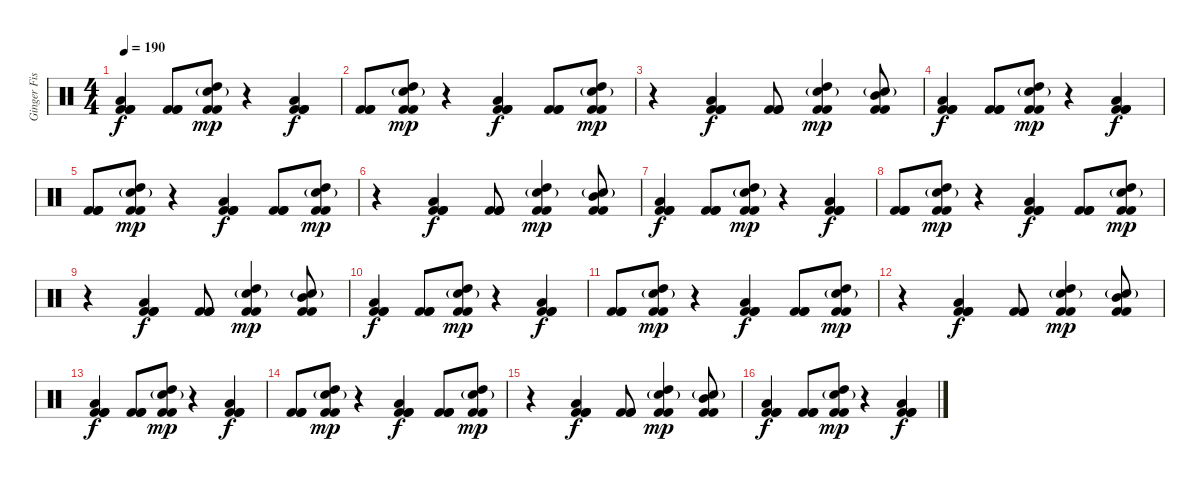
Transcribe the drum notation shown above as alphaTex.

\track ("Ginger Fish" "Ginger Fis") {instrument percussion}
\staff {score}
\articulation defaults
\ts (4 4)
\tempo 190
\clef neutral
\ks c
("Low Tom (hit)" "Kick (hit) 2" "Kick (hit) 2" "Kick (hit) 2").4{dy f} ("Kick (hit) 2" "Kick (hit) 2" "Kick (hit) 2").8 ("High Tom (hit)" "Electric Snare (hit)"{g} "Kick (hit) 2" "Kick (hit) 2").8{dy mp} r.4 ("Low Tom (hit)" "Kick (hit) 2" "Kick (hit) 2" "Kick (hit) 2").4{dy f} |
("Kick (hit) 2" "Kick (hit) 2" "Kick (hit) 2").8 ("High Tom (hit)" "Electric Snare (hit)"{g} "Kick (hit) 2" "Kick (hit) 2").8{dy mp} r.4 ("Low Tom (hit)" "Kick (hit) 2" "Kick (hit) 2" "Kick (hit) 2").4{dy f} ("Kick (hit) 2" "Kick (hit) 2" "Kick (hit) 2").8 ("High Tom (hit)" "Electric Snare (hit)"{g} "Kick (hit) 2" "Kick (hit) 2").8{dy mp} |
r.4 ("Low Tom (hit)" "Kick (hit) 2" "Kick (hit) 2" "Kick (hit) 2").4{dy f} ("Kick (hit) 2" "Kick (hit) 2" "Kick (hit) 2").8 ("High Tom (hit)" "Electric Snare (hit)"{g} "Kick (hit) 2" "Kick (hit) 2").4{dy mp} ("Mid Tom (hit)" "Electric Snare (hit)"{g} "Kick (hit) 2" "Kick (hit) 2").8 |
("Low Tom (hit)" "Kick (hit) 2" "Kick (hit) 2" "Kick (hit) 2").4{dy f} ("Kick (hit) 2" "Kick (hit) 2" "Kick (hit) 2").8 ("High Tom (hit)" "Electric Snare (hit)"{g} "Kick (hit) 2" "Kick (hit) 2").8{dy mp} r.4 ("Low Tom (hit)" "Kick (hit) 2" "Kick (hit) 2" "Kick (hit) 2").4{dy f} |
("Kick (hit) 2" "Kick (hit) 2" "Kick (hit) 2").8 ("High Tom (hit)" "Electric Snare (hit)"{g} "Kick (hit) 2" "Kick (hit) 2").8{dy mp} r.4 ("Low Tom (hit)" "Kick (hit) 2" "Kick (hit) 2" "Kick (hit) 2").4{dy f} ("Kick (hit) 2" "Kick (hit) 2" "Kick (hit) 2").8 ("High Tom (hit)" "Electric Snare (hit)"{g} "Kick (hit) 2" "Kick (hit) 2").8{dy mp} |
r.4 ("Low Tom (hit)" "Kick (hit) 2" "Kick (hit) 2" "Kick (hit) 2").4{dy f} ("Kick (hit) 2" "Kick (hit) 2" "Kick (hit) 2").8 ("High Tom (hit)" "Electric Snare (hit)"{g} "Kick (hit) 2" "Kick (hit) 2").4{dy mp} ("Mid Tom (hit)" "Electric Snare (hit)"{g} "Kick (hit) 2" "Kick (hit) 2").8 |
("Low Tom (hit)" "Kick (hit) 2" "Kick (hit) 2" "Kick (hit) 2").4{dy f} ("Kick (hit) 2" "Kick (hit) 2" "Kick (hit) 2").8 ("High Tom (hit)" "Electric Snare (hit)"{g} "Kick (hit) 2" "Kick (hit) 2").8{dy mp} r.4 ("Low Tom (hit)" "Kick (hit) 2" "Kick (hit) 2" "Kick (hit) 2").4{dy f} |
("Kick (hit) 2" "Kick (hit) 2" "Kick (hit) 2").8 ("High Tom (hit)" "Electric Snare (hit)"{g} "Kick (hit) 2" "Kick (hit) 2").8{dy mp} r.4 ("Low Tom (hit)" "Kick (hit) 2" "Kick (hit) 2" "Kick (hit) 2").4{dy f} ("Kick (hit) 2" "Kick (hit) 2" "Kick (hit) 2").8 ("High Tom (hit)" "Electric Snare (hit)"{g} "Kick (hit) 2" "Kick (hit) 2").8{dy mp} |
r.4 ("Low Tom (hit)" "Kick (hit) 2" "Kick (hit) 2" "Kick (hit) 2").4{dy f} ("Kick (hit) 2" "Kick (hit) 2" "Kick (hit) 2").8 ("High Tom (hit)" "Electric Snare (hit)"{g} "Kick (hit) 2" "Kick (hit) 2").4{dy mp} ("Mid Tom (hit)" "Electric Snare (hit)"{g} "Kick (hit) 2" "Kick (hit) 2").8 |
("Low Tom (hit)" "Kick (hit) 2" "Kick (hit) 2" "Kick (hit) 2").4{dy f} ("Kick (hit) 2" "Kick (hit) 2" "Kick (hit) 2").8 ("High Tom (hit)" "Electric Snare (hit)"{g} "Kick (hit) 2" "Kick (hit) 2").8{dy mp} r.4 ("Low Tom (hit)" "Kick (hit) 2" "Kick (hit) 2" "Kick (hit) 2").4{dy f} |
("Kick (hit) 2" "Kick (hit) 2" "Kick (hit) 2").8 ("High Tom (hit)" "Electric Snare (hit)"{g} "Kick (hit) 2" "Kick (hit) 2").8{dy mp} r.4 ("Low Tom (hit)" "Kick (hit) 2" "Kick (hit) 2" "Kick (hit) 2").4{dy f} ("Kick (hit) 2" "Kick (hit) 2" "Kick (hit) 2").8 ("High Tom (hit)" "Electric Snare (hit)"{g} "Kick (hit) 2" "Kick (hit) 2").8{dy mp} |
r.4 ("Low Tom (hit)" "Kick (hit) 2" "Kick (hit) 2" "Kick (hit) 2").4{dy f} ("Kick (hit) 2" "Kick (hit) 2" "Kick (hit) 2").8 ("High Tom (hit)" "Electric Snare (hit)"{g} "Kick (hit) 2" "Kick (hit) 2").4{dy mp} ("Mid Tom (hit)" "Electric Snare (hit)"{g} "Kick (hit) 2" "Kick (hit) 2").8 |
("Low Tom (hit)" "Kick (hit) 2" "Kick (hit) 2" "Kick (hit) 2").4{dy f} ("Kick (hit) 2" "Kick (hit) 2" "Kick (hit) 2").8 ("High Tom (hit)" "Electric Snare (hit)"{g} "Kick (hit) 2" "Kick (hit) 2").8{dy mp} r.4 ("Low Tom (hit)" "Kick (hit) 2" "Kick (hit) 2" "Kick (hit) 2").4{dy f} |
("Kick (hit) 2" "Kick (hit) 2" "Kick (hit) 2").8 ("High Tom (hit)" "Electric Snare (hit)"{g} "Kick (hit) 2" "Kick (hit) 2").8{dy mp} r.4 ("Low Tom (hit)" "Kick (hit) 2" "Kick (hit) 2" "Kick (hit) 2").4{dy f} ("Kick (hit) 2" "Kick (hit) 2" "Kick (hit) 2").8 ("High Tom (hit)" "Electric Snare (hit)"{g} "Kick (hit) 2" "Kick (hit) 2").8{dy mp} |
r.4 ("Low Tom (hit)" "Kick (hit) 2" "Kick (hit) 2" "Kick (hit) 2").4{dy f} ("Kick (hit) 2" "Kick (hit) 2" "Kick (hit) 2").8 ("High Tom (hit)" "Electric Snare (hit)"{g} "Kick (hit) 2" "Kick (hit) 2").4{dy mp} ("Mid Tom (hit)" "Electric Snare (hit)"{g} "Kick (hit) 2" "Kick (hit) 2").8 |
("Low Tom (hit)" "Kick (hit) 2" "Kick (hit) 2" "Kick (hit) 2").4{dy f} ("Kick (hit) 2" "Kick (hit) 2" "Kick (hit) 2").8 ("High Tom (hit)" "Electric Snare (hit)"{g} "Kick (hit) 2" "Kick (hit) 2").8{dy mp} r.4 ("Low Tom (hit)" "Kick (hit) 2" "Kick (hit) 2" "Kick (hit) 2").4{dy f}
